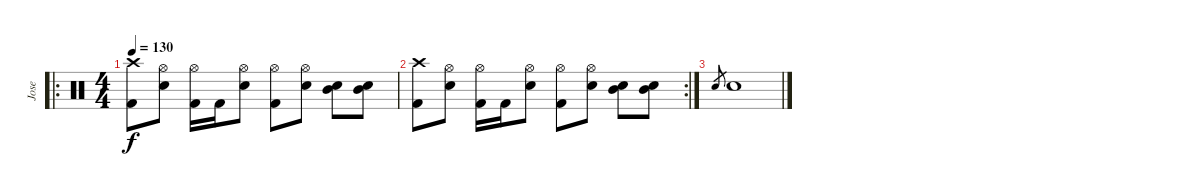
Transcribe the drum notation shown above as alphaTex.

\track ("Jose" "Jose") {instrument percussion}
\staff {score}
\articulation defaults
\ro
\ts (4 4)
\tempo 130
\clef neutral
\ks c
("Crash high (hit)" "Kick (hit) 2").8{dy f} ("Hi-Hat (open)" "Electric Snare (hit)").8 ("Hi-Hat (open)" "Kick (hit) 2").16 "Kick (hit) 2".16 ("Hi-Hat (open)" "Electric Snare (hit)").8 ("Hi-Hat (open)" "Kick (hit) 2").8 ("Hi-Hat (open)" "Electric Snare (hit)").8 ("Mid Tom (hit)" "Electric Snare (hit)").8 ("Mid Tom (hit)" "Electric Snare (hit)").8 |
\rc 2
("Crash high (hit)" "Kick (hit) 2").8 ("Hi-Hat (open)" "Electric Snare (hit)").8 ("Hi-Hat (open)" "Kick (hit) 2").16 "Kick (hit) 2".16 ("Hi-Hat (open)" "Electric Snare (hit)").8 ("Hi-Hat (open)" "Kick (hit) 2").8 ("Hi-Hat (open)" "Electric Snare (hit)").8 ("Mid Tom (hit)" "Electric Snare (hit)").8 ("Mid Tom (hit)" "Electric Snare (hit)").8 |
"Electric Snare (hit)".8{gr} "Electric Snare (hit)".1
